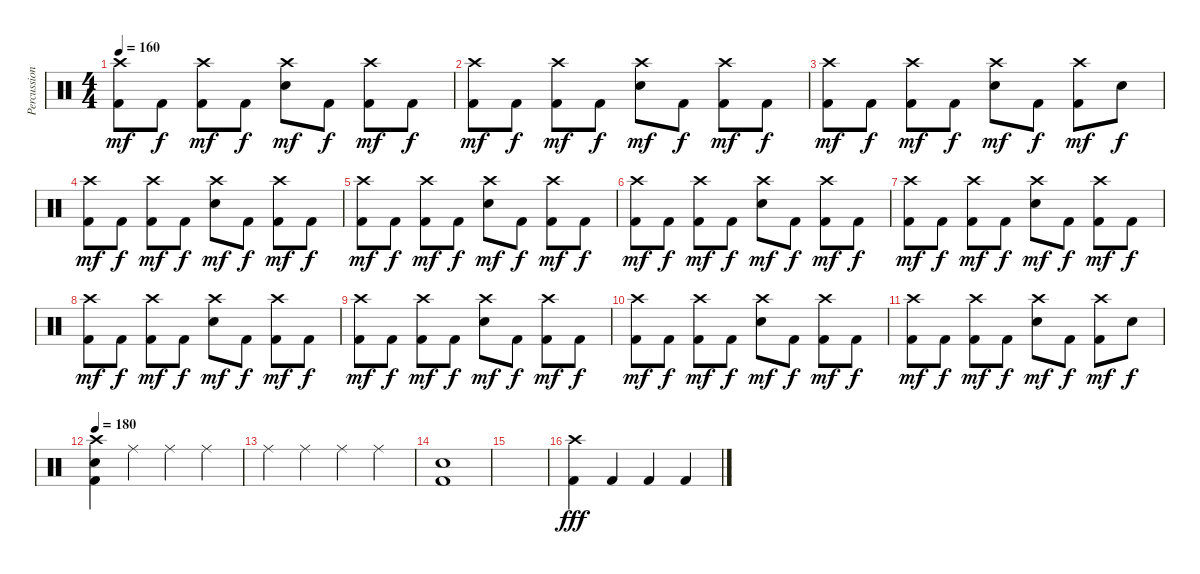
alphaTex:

\track ("Percussion" "Percussion") {instrument percussion}
\staff {score}
\articulation defaults
\ts (4 4)
\tempo 160
\clef neutral
\ks c
("Crash high (hit)" "Kick (hit) 2").8{dy mf} "Kick (hit) 2".8{dy f} ("Crash high (hit)" "Kick (hit) 2").8{dy mf} "Kick (hit) 2".8{dy f} ("Crash high (hit)" "Electric Snare (hit)").8{dy mf} "Kick (hit) 2".8{dy f} ("Crash high (hit)" "Kick (hit) 2").8{dy mf} "Kick (hit) 2".8{dy f} |
("Crash high (hit)" "Kick (hit) 2").8{dy mf} "Kick (hit) 2".8{dy f} ("Crash high (hit)" "Kick (hit) 2").8{dy mf} "Kick (hit) 2".8{dy f} ("Crash high (hit)" "Electric Snare (hit)").8{dy mf} "Kick (hit) 2".8{dy f} ("Crash high (hit)" "Kick (hit) 2").8{dy mf} "Kick (hit) 2".8{dy f} |
("Crash high (hit)" "Kick (hit) 2").8{dy mf} "Kick (hit) 2".8{dy f} ("Crash high (hit)" "Kick (hit) 2").8{dy mf} "Kick (hit) 2".8{dy f} ("Crash high (hit)" "Electric Snare (hit)").8{dy mf} "Kick (hit) 2".8{dy f} ("Crash high (hit)" "Kick (hit) 2").8{dy mf} "Electric Snare (hit)".8{dy f} |
("Crash high (hit)" "Kick (hit) 2").8{dy mf} "Kick (hit) 2".8{dy f} ("Crash high (hit)" "Kick (hit) 2").8{dy mf} "Kick (hit) 2".8{dy f} ("Crash high (hit)" "Electric Snare (hit)").8{dy mf} "Kick (hit) 2".8{dy f} ("Crash high (hit)" "Kick (hit) 2").8{dy mf} "Kick (hit) 2".8{dy f} |
("Crash high (hit)" "Kick (hit) 2").8{dy mf} "Kick (hit) 2".8{dy f} ("Crash high (hit)" "Kick (hit) 2").8{dy mf} "Kick (hit) 2".8{dy f} ("Crash high (hit)" "Electric Snare (hit)").8{dy mf} "Kick (hit) 2".8{dy f} ("Crash high (hit)" "Kick (hit) 2").8{dy mf} "Kick (hit) 2".8{dy f} |
("Crash high (hit)" "Kick (hit) 2").8{dy mf} "Kick (hit) 2".8{dy f} ("Crash high (hit)" "Kick (hit) 2").8{dy mf} "Kick (hit) 2".8{dy f} ("Crash high (hit)" "Electric Snare (hit)").8{dy mf} "Kick (hit) 2".8{dy f} ("Crash high (hit)" "Kick (hit) 2").8{dy mf} "Kick (hit) 2".8{dy f} |
("Crash high (hit)" "Kick (hit) 2").8{dy mf} "Kick (hit) 2".8{dy f} ("Crash high (hit)" "Kick (hit) 2").8{dy mf} "Kick (hit) 2".8{dy f} ("Crash high (hit)" "Electric Snare (hit)").8{dy mf} "Kick (hit) 2".8{dy f} ("Crash high (hit)" "Kick (hit) 2").8{dy mf} "Kick (hit) 2".8{dy f} |
("Crash high (hit)" "Kick (hit) 2").8{dy mf} "Kick (hit) 2".8{dy f} ("Crash high (hit)" "Kick (hit) 2").8{dy mf} "Kick (hit) 2".8{dy f} ("Crash high (hit)" "Electric Snare (hit)").8{dy mf} "Kick (hit) 2".8{dy f} ("Crash high (hit)" "Kick (hit) 2").8{dy mf} "Kick (hit) 2".8{dy f} |
("Crash high (hit)" "Kick (hit) 2").8{dy mf} "Kick (hit) 2".8{dy f} ("Crash high (hit)" "Kick (hit) 2").8{dy mf} "Kick (hit) 2".8{dy f} ("Crash high (hit)" "Electric Snare (hit)").8{dy mf} "Kick (hit) 2".8{dy f} ("Crash high (hit)" "Kick (hit) 2").8{dy mf} "Kick (hit) 2".8{dy f} |
("Crash high (hit)" "Kick (hit) 2").8{dy mf} "Kick (hit) 2".8{dy f} ("Crash high (hit)" "Kick (hit) 2").8{dy mf} "Kick (hit) 2".8{dy f} ("Crash high (hit)" "Electric Snare (hit)").8{dy mf} "Kick (hit) 2".8{dy f} ("Crash high (hit)" "Kick (hit) 2").8{dy mf} "Kick (hit) 2".8{dy f} |
("Crash high (hit)" "Kick (hit) 2").8{dy mf} "Kick (hit) 2".8{dy f} ("Crash high (hit)" "Kick (hit) 2").8{dy mf} "Kick (hit) 2".8{dy f} ("Crash high (hit)" "Electric Snare (hit)").8{dy mf} "Kick (hit) 2".8{dy f} ("Crash high (hit)" "Kick (hit) 2").8{dy mf} "Electric Snare (hit)".8{dy f} |
\tempo 180
("Crash high (hit)" "Electric Snare (hit)" "Kick (hit) 2").4 "Ride (middle)".4 "Ride (middle)".4 "Ride (middle)".4 |
"Ride (middle)".4 "Ride (middle)".4 "Ride (middle)".4 "Ride (middle)".4 |
("Electric Snare (hit)" "Kick (hit) 2").1 |
|
("Crash high (hit)" "Kick (hit) 2").4{dy fff} "Kick (hit) 2".4 "Kick (hit) 2".4 "Kick (hit) 2".4
